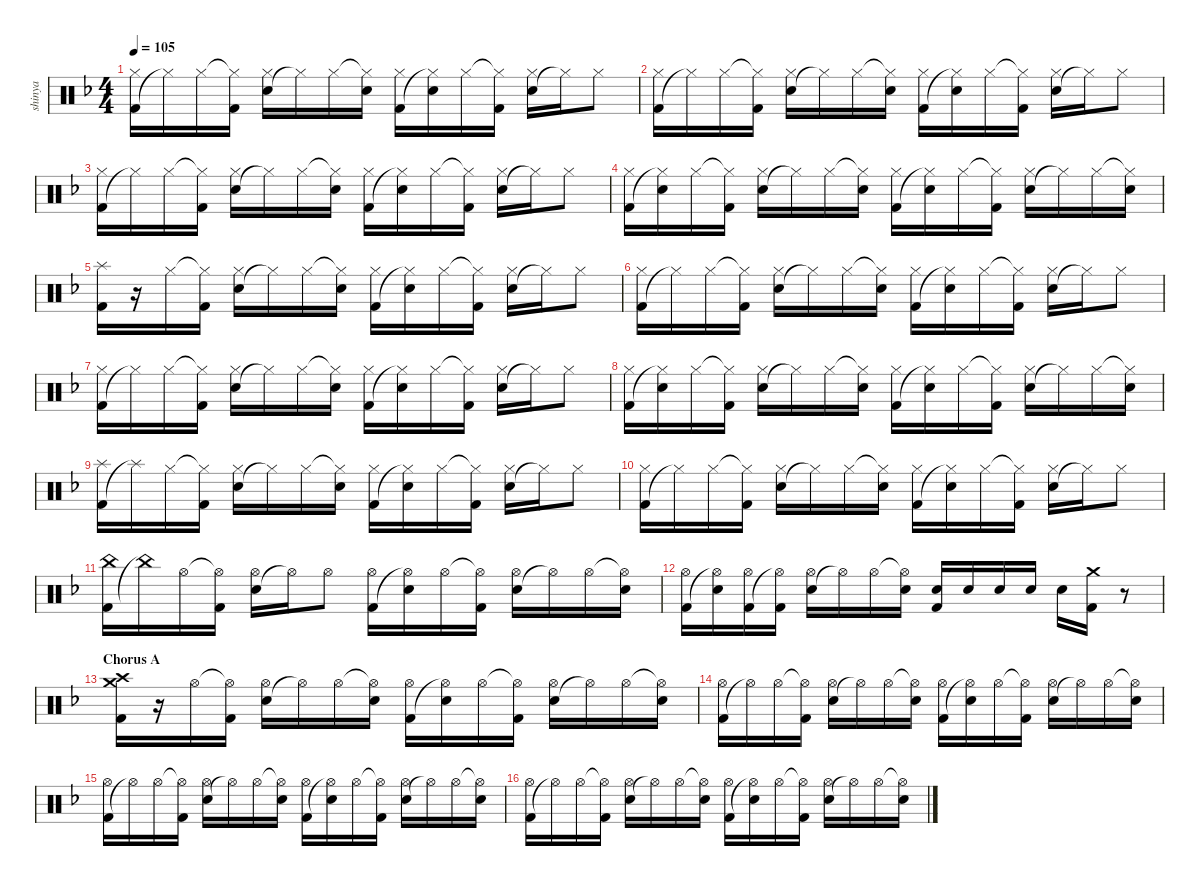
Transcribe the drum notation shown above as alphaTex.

\defaultSystemsLayout 4
\hideDynamics
\bracketExtendMode nobrackets
\otherSystemsTrackNameOrientation horizontal
\track ("Shinya" "shinya") {defaultSystemsLayout 4 instrument percussion}
\staff {score}
\articulation defaults
\ts (4 4)
\tempo 105
\clef neutral
\scale
1.06363
\ks dminor
("Kick (hit) 2"{acc forcenatural} "Hi-Hat (closed)"{acc #}).16{dy fff} "Hi-Hat (closed)"{t acc #}.16 "Hi-Hat (closed)"{acc #}.16 ("Hi-Hat (closed)"{t acc #} "Kick (hit) 2"{acc forcenatural}).16 ("Snare (hit) 2"{acc forcenatural} "Hi-Hat (closed)"{acc #}).16 "Hi-Hat (closed)"{t acc #}.16 "Hi-Hat (closed)"{acc #}.16 ("Hi-Hat (closed)"{t acc #} "Snare (hit) 2"{acc forcenatural}).16 ("Kick (hit) 2"{acc forcenatural} "Hi-Hat (closed)"{acc #}).16 ("Hi-Hat (closed)"{t acc #} "Snare (hit) 2"{acc forcenatural}).16 "Hi-Hat (closed)"{acc #}.16 ("Hi-Hat (closed)"{t acc #} "Kick (hit) 2"{acc forcenatural}).16 ("Snare (hit) 2"{acc forcenatural} "Hi-Hat (closed)"{acc #}).16 "Hi-Hat (closed)"{t acc #}.16 "Hi-Hat (closed)"{acc #}.8 |
\scale
0.97879 ("Kick (hit) 2"{acc forcenatural} "Hi-Hat (closed)"{acc #}).16 "Hi-Hat (closed)"{t acc #}.16 "Hi-Hat (closed)"{acc #}.16 ("Hi-Hat (closed)"{t acc #} "Kick (hit) 2"{acc forcenatural}).16 ("Snare (hit) 2"{acc forcenatural} "Hi-Hat (closed)"{acc #}).16 "Hi-Hat (closed)"{t acc #}.16 "Hi-Hat (closed)"{acc #}.16 ("Hi-Hat (closed)"{t acc #} "Snare (hit) 2"{acc forcenatural}).16 ("Kick (hit) 2"{acc forcenatural} "Hi-Hat (closed)"{acc #}).16 ("Hi-Hat (closed)"{t acc #} "Snare (hit) 2"{acc forcenatural}).16 "Hi-Hat (closed)"{acc #}.16 ("Hi-Hat (closed)"{t acc #} "Kick (hit) 2"{acc forcenatural}).16 ("Snare (hit) 2"{acc forcenatural} "Hi-Hat (closed)"{acc #}).16 "Hi-Hat (closed)"{t acc #}.16 "Hi-Hat (closed)"{acc #}.8 |
\scale
0.97879 ("Kick (hit) 2"{acc forcenatural} "Hi-Hat (closed)"{acc #}).16 "Hi-Hat (closed)"{t acc #}.16 "Hi-Hat (closed)"{acc #}.16 ("Hi-Hat (closed)"{t acc #} "Kick (hit) 2"{acc forcenatural}).16 ("Snare (hit) 2"{acc forcenatural} "Hi-Hat (closed)"{acc #}).16 "Hi-Hat (closed)"{t acc #}.16 "Hi-Hat (closed)"{acc #}.16 ("Hi-Hat (closed)"{t acc #} "Snare (hit) 2"{acc forcenatural}).16 ("Kick (hit) 2"{acc forcenatural} "Hi-Hat (closed)"{acc #}).16 ("Hi-Hat (closed)"{t acc #} "Snare (hit) 2"{acc forcenatural}).16 "Hi-Hat (closed)"{acc #}.16 ("Hi-Hat (closed)"{t acc #} "Kick (hit) 2"{acc forcenatural}).16 ("Snare (hit) 2"{acc forcenatural} "Hi-Hat (closed)"{acc #}).16 "Hi-Hat (closed)"{t acc #}.16 "Hi-Hat (closed)"{acc #}.8 |
\scale
0.97879 ("Kick (hit) 2"{acc forcenatural} "Hi-Hat (closed)"{acc #}).16 ("Hi-Hat (closed)"{t acc #} "Snare (hit) 2"{acc forcenatural}).16 "Hi-Hat (closed)"{acc #}.16 ("Hi-Hat (closed)"{t acc #} "Kick (hit) 2"{acc forcenatural}).16 ("Snare (hit) 2"{acc forcenatural} "Hi-Hat (closed)"{acc #}).16 "Hi-Hat (closed)"{t acc #}.16 "Hi-Hat (closed)"{acc #}.16 ("Hi-Hat (closed)"{t acc #} "Snare (hit) 2"{acc forcenatural}).16 ("Kick (hit) 2"{acc forcenatural} "Hi-Hat (closed)"{acc #}).16 ("Hi-Hat (closed)"{t acc #} "Snare (hit) 2"{acc forcenatural}).16 "Hi-Hat (closed)"{acc #}.16 ("Hi-Hat (closed)"{t acc #} "Kick (hit) 2"{acc forcenatural}).16 ("Snare (hit) 2"{acc forcenatural} "Hi-Hat (closed)"{acc #}).16 "Hi-Hat (closed)"{t acc #}.16 "Hi-Hat (closed)"{acc #}.16 ("Hi-Hat (closed)"{t acc #} "Snare (hit) 2"{acc forcenatural}).16 |
\scale
1.06758 ("Kick (hit) 2"{acc forcenatural} "Splash (hit)"{acc forcenatural}).16 r.16 "Hi-Hat (closed)"{acc #}.16 ("Hi-Hat (closed)"{t acc #} "Kick (hit) 2"{acc forcenatural}).16 ("Snare (hit) 2"{acc forcenatural} "Hi-Hat (closed)"{acc #}).16 "Hi-Hat (closed)"{t acc #}.16 "Hi-Hat (closed)"{acc #}.16 ("Hi-Hat (closed)"{t acc #} "Snare (hit) 2"{acc forcenatural}).16 ("Kick (hit) 2"{acc forcenatural} "Hi-Hat (closed)"{acc #}).16 ("Hi-Hat (closed)"{t acc #} "Snare (hit) 2"{acc forcenatural}).16 "Hi-Hat (closed)"{acc #}.16 ("Hi-Hat (closed)"{t acc #} "Kick (hit) 2"{acc forcenatural}).16 ("Snare (hit) 2"{acc forcenatural} "Hi-Hat (closed)"{acc #}).16 "Hi-Hat (closed)"{t acc #}.16 "Hi-Hat (closed)"{acc #}.8 |
\scale
0.977474 ("Kick (hit) 2"{acc forcenatural} "Hi-Hat (closed)"{acc #}).16 "Hi-Hat (closed)"{t acc #}.16 "Hi-Hat (closed)"{acc #}.16 ("Hi-Hat (closed)"{t acc #} "Kick (hit) 2"{acc forcenatural}).16 ("Snare (hit) 2"{acc forcenatural} "Hi-Hat (closed)"{acc #}).16 "Hi-Hat (closed)"{t acc #}.16 "Hi-Hat (closed)"{acc #}.16 ("Hi-Hat (closed)"{t acc #} "Snare (hit) 2"{acc forcenatural}).16 ("Kick (hit) 2"{acc forcenatural} "Hi-Hat (closed)"{acc #}).16 ("Hi-Hat (closed)"{t acc #} "Snare (hit) 2"{acc forcenatural}).16 "Hi-Hat (closed)"{acc #}.16 ("Hi-Hat (closed)"{t acc #} "Kick (hit) 2"{acc forcenatural}).16 ("Snare (hit) 2"{acc forcenatural} "Hi-Hat (closed)"{acc #}).16 "Hi-Hat (closed)"{t acc #}.16 "Hi-Hat (closed)"{acc #}.8 |
\scale
0.977474 ("Kick (hit) 2"{acc forcenatural} "Hi-Hat (closed)"{acc #}).16 "Hi-Hat (closed)"{t acc #}.16 "Hi-Hat (closed)"{acc #}.16 ("Hi-Hat (closed)"{t acc #} "Kick (hit) 2"{acc forcenatural}).16 ("Snare (hit) 2"{acc forcenatural} "Hi-Hat (closed)"{acc #}).16 "Hi-Hat (closed)"{t acc #}.16 "Hi-Hat (closed)"{acc #}.16 ("Hi-Hat (closed)"{t acc #} "Snare (hit) 2"{acc forcenatural}).16 ("Kick (hit) 2"{acc forcenatural} "Hi-Hat (closed)"{acc #}).16 ("Hi-Hat (closed)"{t acc #} "Snare (hit) 2"{acc forcenatural}).16 "Hi-Hat (closed)"{acc #}.16 ("Hi-Hat (closed)"{t acc #} "Kick (hit) 2"{acc forcenatural}).16 ("Snare (hit) 2"{acc forcenatural} "Hi-Hat (closed)"{acc #}).16 "Hi-Hat (closed)"{t acc #}.16 "Hi-Hat (closed)"{acc #}.8 |
\scale
0.977474 ("Kick (hit) 2"{acc forcenatural} "Hi-Hat (closed)"{acc #}).16 ("Hi-Hat (closed)"{t acc #} "Snare (hit) 2"{acc forcenatural}).16 "Hi-Hat (closed)"{acc #}.16 ("Hi-Hat (closed)"{t acc #} "Kick (hit) 2"{acc forcenatural}).16 ("Snare (hit) 2"{acc forcenatural} "Hi-Hat (closed)"{acc #}).16 "Hi-Hat (closed)"{t acc #}.16 "Hi-Hat (closed)"{acc #}.16 ("Hi-Hat (closed)"{t acc #} "Snare (hit) 2"{acc forcenatural}).16 ("Kick (hit) 2"{acc forcenatural} "Hi-Hat (closed)"{acc #}).16 ("Hi-Hat (closed)"{t acc #} "Snare (hit) 2"{acc forcenatural}).16 "Hi-Hat (closed)"{acc #}.16 ("Hi-Hat (closed)"{t acc #} "Kick (hit) 2"{acc forcenatural}).16 ("Snare (hit) 2"{acc forcenatural} "Hi-Hat (closed)"{acc #}).16 "Hi-Hat (closed)"{t acc #}.16 "Hi-Hat (closed)"{acc #}.16 ("Hi-Hat (closed)"{t acc #} "Snare (hit) 2"{acc forcenatural}).16 |
\scale
1.06316 ("Kick (hit) 2"{acc forcenatural} "Splash (hit)"{acc forcenatural}).16 "Splash (hit)"{t acc forcenatural}.16 "Hi-Hat (closed)"{acc #}.16 ("Hi-Hat (closed)"{t acc #} "Kick (hit) 2"{acc forcenatural}).16 ("Snare (hit) 2"{acc forcenatural} "Hi-Hat (closed)"{acc #}).16 "Hi-Hat (closed)"{t acc #}.16 "Hi-Hat (closed)"{acc #}.16 ("Hi-Hat (closed)"{t acc #} "Snare (hit) 2"{acc forcenatural}).16 ("Kick (hit) 2"{acc forcenatural} "Hi-Hat (closed)"{acc #}).16 ("Hi-Hat (closed)"{t acc #} "Snare (hit) 2"{acc forcenatural}).16 "Hi-Hat (closed)"{acc #}.16 ("Hi-Hat (closed)"{t acc #} "Kick (hit) 2"{acc forcenatural}).16 ("Snare (hit) 2"{acc forcenatural} "Hi-Hat (closed)"{acc #}).16 "Hi-Hat (closed)"{t acc #}.16 "Hi-Hat (closed)"{acc #}.8 |
\scale
0.973053 ("Kick (hit) 2"{acc forcenatural} "Hi-Hat (closed)"{acc #}).16 "Hi-Hat (closed)"{t acc #}.16 "Hi-Hat (closed)"{acc #}.16 ("Hi-Hat (closed)"{t acc #} "Kick (hit) 2"{acc forcenatural}).16 ("Snare (hit) 2"{acc forcenatural} "Hi-Hat (closed)"{acc #}).16 "Hi-Hat (closed)"{t acc #}.16 "Hi-Hat (closed)"{acc #}.16 ("Hi-Hat (closed)"{t acc #} "Snare (hit) 2"{acc forcenatural}).16 ("Kick (hit) 2"{acc forcenatural} "Hi-Hat (closed)"{acc #}).16 ("Hi-Hat (closed)"{t acc #} "Snare (hit) 2"{acc forcenatural}).16 "Hi-Hat (closed)"{acc #}.16 ("Hi-Hat (closed)"{t acc #} "Kick (hit) 2"{acc forcenatural}).16 ("Snare (hit) 2"{acc forcenatural} "Hi-Hat (closed)"{acc #}).16 "Hi-Hat (closed)"{t acc #}.16 "Hi-Hat (closed)"{acc #}.8 |
\scale
0.973053 ("Kick (hit) 2"{acc forcenatural} "China (hit)"{acc forcenatural}).16 "China (hit)"{t acc forcenatural}.16 "Hi-Hat (open)"{acc #}.16 ("Hi-Hat (open)"{t acc #} "Kick (hit) 2"{acc forcenatural}).16 ("Snare (hit) 2"{acc forcenatural} "Hi-Hat (open)"{acc #}).16 "Hi-Hat (open)"{t acc #}.16 "Hi-Hat (open)"{acc #}.8 ("Kick (hit) 2"{acc forcenatural} "Hi-Hat (open)"{acc #}).16 ("Hi-Hat (open)"{t acc #} "Snare (hit) 2"{acc forcenatural}).16 "Hi-Hat (open)"{acc #}.16 ("Hi-Hat (open)"{t acc #} "Kick (hit) 2"{acc forcenatural}).16 ("Snare (hit) 2"{acc forcenatural} "Hi-Hat (open)"{acc #}).16 "Hi-Hat (open)"{t acc #}.16 "Hi-Hat (open)"{acc #}.16 ("Hi-Hat (open)"{t acc #} "Snare (hit) 2"{acc forcenatural}).16 |
\scale
0.990737 ("Kick (hit) 2"{acc forcenatural} "Hi-Hat (open)"{acc #}).16 ("Hi-Hat (open)"{t acc #} "Snare (hit) 2"{acc forcenatural}).16 ("Kick (hit) 2"{acc forcenatural} "Hi-Hat (open)"{acc #}).16 ("Hi-Hat (open)"{t acc #} "Kick (hit) 2"{acc forcenatural}).16 ("Snare (hit) 2"{acc forcenatural} "Hi-Hat (open)"{acc #}).16 "Hi-Hat (open)"{t acc #}.16 "Hi-Hat (open)"{acc #}.16 ("Hi-Hat (open)"{t acc #} "Snare (hit) 2"{acc forcenatural}).16 ("Kick (hit) 2"{acc forcenatural} "Snare (hit) 2"{acc forcenatural}).16 "Snare (hit) 2"{acc forcenatural}.16 "Snare (hit) 2"{acc forcenatural}.16 "Snare (hit) 2"{acc forcenatural}.16 "Snare (hit) 2"{acc forcenatural}.16 ("Kick (hit) 2"{acc forcenatural} "Crash medium (hit)"{acc forcenatural}).16 r.8 |
\section ("" "Chorus A")
\scale
1.06758 ("Kick (hit) 2"{acc forcenatural} "Crash high (hit)"{acc #} "Crash medium (hit)"{acc forcenatural}).16 r.16 "Hi-Hat (open)"{acc #}.16 ("Hi-Hat (open)"{t acc #} "Kick (hit) 2"{acc forcenatural}).16 ("Snare (hit) 2"{acc forcenatural} "Hi-Hat (open)"{acc #}).16 "Hi-Hat (open)"{t acc #}.16 "Hi-Hat (open)"{acc #}.16 ("Hi-Hat (open)"{t acc #} "Snare (hit) 2"{acc forcenatural}).16 ("Kick (hit) 2"{acc forcenatural} "Hi-Hat (open)"{acc #}).16 ("Hi-Hat (open)"{t acc #} "Snare (hit) 2"{acc forcenatural}).16 "Hi-Hat (open)"{acc #}.16 ("Hi-Hat (open)"{t acc #} "Kick (hit) 2"{acc forcenatural}).16 ("Snare (hit) 2"{acc forcenatural} "Hi-Hat (open)"{acc #}).16 "Hi-Hat (open)"{t acc #}.16 "Hi-Hat (open)"{acc #}.16 ("Hi-Hat (open)"{t acc #} "Snare (hit) 2"{acc forcenatural}).16 |
\scale
0.977474 ("Kick (hit) 2"{acc forcenatural} "Hi-Hat (open)"{acc #}).16 "Hi-Hat (open)"{t acc #}.16 "Hi-Hat (open)"{acc #}.16 ("Hi-Hat (open)"{t acc #} "Kick (hit) 2"{acc forcenatural}).16 ("Snare (hit) 2"{acc forcenatural} "Hi-Hat (open)"{acc #}).16 "Hi-Hat (open)"{t acc #}.16 "Hi-Hat (open)"{acc #}.16 ("Hi-Hat (open)"{t acc #} "Snare (hit) 2"{acc forcenatural}).16 ("Kick (hit) 2"{acc forcenatural} "Hi-Hat (open)"{acc #}).16 ("Hi-Hat (open)"{t acc #} "Snare (hit) 2"{acc forcenatural}).16 "Hi-Hat (open)"{acc #}.16 ("Hi-Hat (open)"{t acc #} "Kick (hit) 2"{acc forcenatural}).16 ("Snare (hit) 2"{acc forcenatural} "Hi-Hat (open)"{acc #}).16 "Hi-Hat (open)"{t acc #}.16 "Hi-Hat (open)"{acc #}.16 ("Hi-Hat (open)"{t acc #} "Snare (hit) 2"{acc forcenatural}).16 |
\scale
0.977474 ("Kick (hit) 2"{acc forcenatural} "Hi-Hat (open)"{acc #}).16 "Hi-Hat (open)"{t acc #}.16 "Hi-Hat (open)"{acc #}.16 ("Hi-Hat (open)"{t acc #} "Kick (hit) 2"{acc forcenatural}).16 ("Snare (hit) 2"{acc forcenatural} "Hi-Hat (open)"{acc #}).16 "Hi-Hat (open)"{t acc #}.16 "Hi-Hat (open)"{acc #}.16 ("Hi-Hat (open)"{t acc #} "Snare (hit) 2"{acc forcenatural}).16 ("Kick (hit) 2"{acc forcenatural} "Hi-Hat (open)"{acc #}).16 ("Hi-Hat (open)"{t acc #} "Snare (hit) 2"{acc forcenatural}).16 "Hi-Hat (open)"{acc #}.16 ("Hi-Hat (open)"{t acc #} "Kick (hit) 2"{acc forcenatural}).16 ("Snare (hit) 2"{acc forcenatural} "Hi-Hat (open)"{acc #}).16 "Hi-Hat (open)"{t acc #}.16 "Hi-Hat (open)"{acc #}.16 ("Hi-Hat (open)"{t acc #} "Snare (hit) 2"{acc forcenatural}).16 |
\scale
0.977474 ("Kick (hit) 2"{acc forcenatural} "Hi-Hat (open)"{acc #}).16 "Hi-Hat (open)"{t acc #}.16 "Hi-Hat (open)"{acc #}.16 ("Hi-Hat (open)"{t acc #} "Kick (hit) 2"{acc forcenatural}).16 ("Snare (hit) 2"{acc forcenatural} "Hi-Hat (open)"{acc #}).16 "Hi-Hat (open)"{t acc #}.16 "Hi-Hat (open)"{acc #}.16 ("Hi-Hat (open)"{t acc #} "Snare (hit) 2"{acc forcenatural}).16 ("Kick (hit) 2"{acc forcenatural} "Hi-Hat (open)"{acc #}).16 ("Hi-Hat (open)"{t acc #} "Snare (hit) 2"{acc forcenatural}).16 "Hi-Hat (open)"{acc #}.16 ("Hi-Hat (open)"{t acc #} "Kick (hit) 2"{acc forcenatural}).16 ("Snare (hit) 2"{acc forcenatural} "Hi-Hat (open)"{acc #}).16 "Hi-Hat (open)"{t acc #}.16 "Hi-Hat (open)"{acc #}.16 ("Hi-Hat (open)"{t acc #} "Snare (hit) 2"{acc forcenatural}).16
